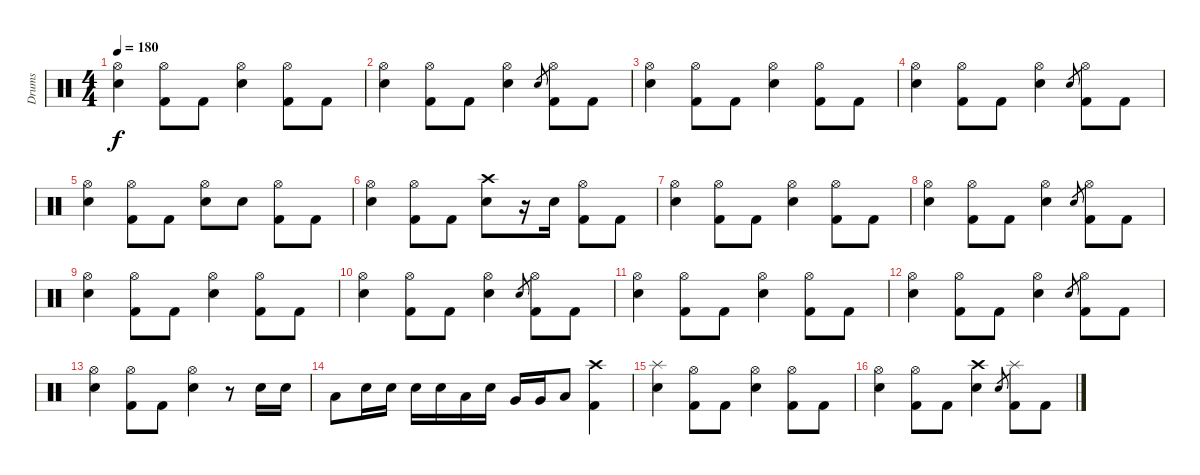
\track ("Drums" "Drums") {instrument percussion}
\staff {score}
\articulation defaults
\ts (4 4)
\tempo 180
\clef neutral
\ks c
("Hi-Hat (open)" "Snare (hit) 2").4{dy f} ("Hi-Hat (open)" "Kick (hit) 2").8 "Kick (hit) 2".8 ("Hi-Hat (open)" "Snare (hit) 2").4 ("Hi-Hat (open)" "Kick (hit) 2").8 "Kick (hit) 2".8 |
("Hi-Hat (open)" "Snare (hit) 2").4 ("Hi-Hat (open)" "Kick (hit) 2").8 "Kick (hit) 2".8 ("Hi-Hat (open)" "Snare (hit) 2").4 "Snare (hit) 2".8{gr} ("Hi-Hat (open)" "Kick (hit) 2").8 "Kick (hit) 2".8 |
("Hi-Hat (open)" "Snare (hit) 2").4 ("Hi-Hat (open)" "Kick (hit) 2").8 "Kick (hit) 2".8 ("Hi-Hat (open)" "Snare (hit) 2").4 ("Hi-Hat (open)" "Kick (hit) 2").8 "Kick (hit) 2".8 |
("Hi-Hat (open)" "Snare (hit) 2").4 ("Hi-Hat (open)" "Kick (hit) 2").8 "Kick (hit) 2".8 ("Hi-Hat (open)" "Snare (hit) 2").4 "Snare (hit) 2".8{gr} ("Hi-Hat (open)" "Kick (hit) 2").8 "Kick (hit) 2".8 |
("Hi-Hat (open)" "Snare (hit) 2").4 ("Hi-Hat (open)" "Kick (hit) 2").8 "Kick (hit) 2".8 ("Hi-Hat (open)" "Snare (hit) 2").8 "Snare (hit) 2".8 ("Hi-Hat (open)" "Kick (hit) 2").8 "Kick (hit) 2".8 |
("Hi-Hat (open)" "Snare (hit) 2").4 ("Hi-Hat (open)" "Kick (hit) 2").8 "Kick (hit) 2".8 ("Crash high (hit)" "Snare (hit) 2").8 r.16 "Snare (hit) 2".16 ("Hi-Hat (open)" "Kick (hit) 2").8 "Kick (hit) 2".8 |
("Hi-Hat (open)" "Snare (hit) 2").4 ("Hi-Hat (open)" "Kick (hit) 2").8 "Kick (hit) 2".8 ("Hi-Hat (open)" "Snare (hit) 2").4 ("Hi-Hat (open)" "Kick (hit) 2").8 "Kick (hit) 2".8 |
("Hi-Hat (open)" "Snare (hit) 2").4 ("Hi-Hat (open)" "Kick (hit) 2").8 "Kick (hit) 2".8 ("Hi-Hat (open)" "Snare (hit) 2").4 "Snare (hit) 2".8{gr} ("Hi-Hat (open)" "Kick (hit) 2").8 "Kick (hit) 2".8 |
("Hi-Hat (open)" "Snare (hit) 2").4 ("Hi-Hat (open)" "Kick (hit) 2").8 "Kick (hit) 2".8 ("Hi-Hat (open)" "Snare (hit) 2").4 ("Hi-Hat (open)" "Kick (hit) 2").8 "Kick (hit) 2".8 |
("Hi-Hat (open)" "Snare (hit) 2").4 ("Hi-Hat (open)" "Kick (hit) 2").8 "Kick (hit) 2".8 ("Hi-Hat (open)" "Snare (hit) 2").4 "Snare (hit) 2".8{gr} ("Hi-Hat (open)" "Kick (hit) 2").8 "Kick (hit) 2".8 |
("Hi-Hat (open)" "Snare (hit) 2").4 ("Hi-Hat (open)" "Kick (hit) 2").8 "Kick (hit) 2".8 ("Hi-Hat (open)" "Snare (hit) 2").4 ("Hi-Hat (open)" "Kick (hit) 2").8 "Kick (hit) 2".8 |
("Hi-Hat (open)" "Snare (hit) 2").4 ("Hi-Hat (open)" "Kick (hit) 2").8 "Kick (hit) 2".8 ("Hi-Hat (open)" "Snare (hit) 2").4 "Snare (hit) 2".8{gr} ("Hi-Hat (open)" "Kick (hit) 2").8 "Kick (hit) 2".8 |
("Hi-Hat (open)" "Snare (hit) 2").4 ("Hi-Hat (open)" "Kick (hit) 2").8 "Kick (hit) 2".8 ("Hi-Hat (open)" "Snare (hit) 2").4 r.8 "Snare (hit) 2".16 "Snare (hit) 2".16 |
"Low Tom (hit)".8 "Snare (hit) 2".16 "Snare (hit) 2".16 "Snare (hit) 2".16 "Snare (hit) 2".16 "Low Tom (hit)".16 "Snare (hit) 2".16 "Very Low Tom (hit)".16 "Very Low Tom (hit)".16 "Low Floor Tom (hit)".8 ("Crash high (hit)" "Kick (hit) 2").4 |
("Splash (hit)" "Snare (hit) 2").4 ("Hi-Hat (open)" "Kick (hit) 2").8 "Kick (hit) 2".8 ("Hi-Hat (open)" "Snare (hit) 2").4 ("Hi-Hat (open)" "Kick (hit) 2").8 "Kick (hit) 2".8 |
("Hi-Hat (open)" "Snare (hit) 2").4 ("Hi-Hat (open)" "Kick (hit) 2").8 "Kick (hit) 2".8 ("Crash high (hit)" "Snare (hit) 2").4 "Snare (hit) 2".8{gr} ("Splash (hit)" "Kick (hit) 2").8 "Kick (hit) 2".8
